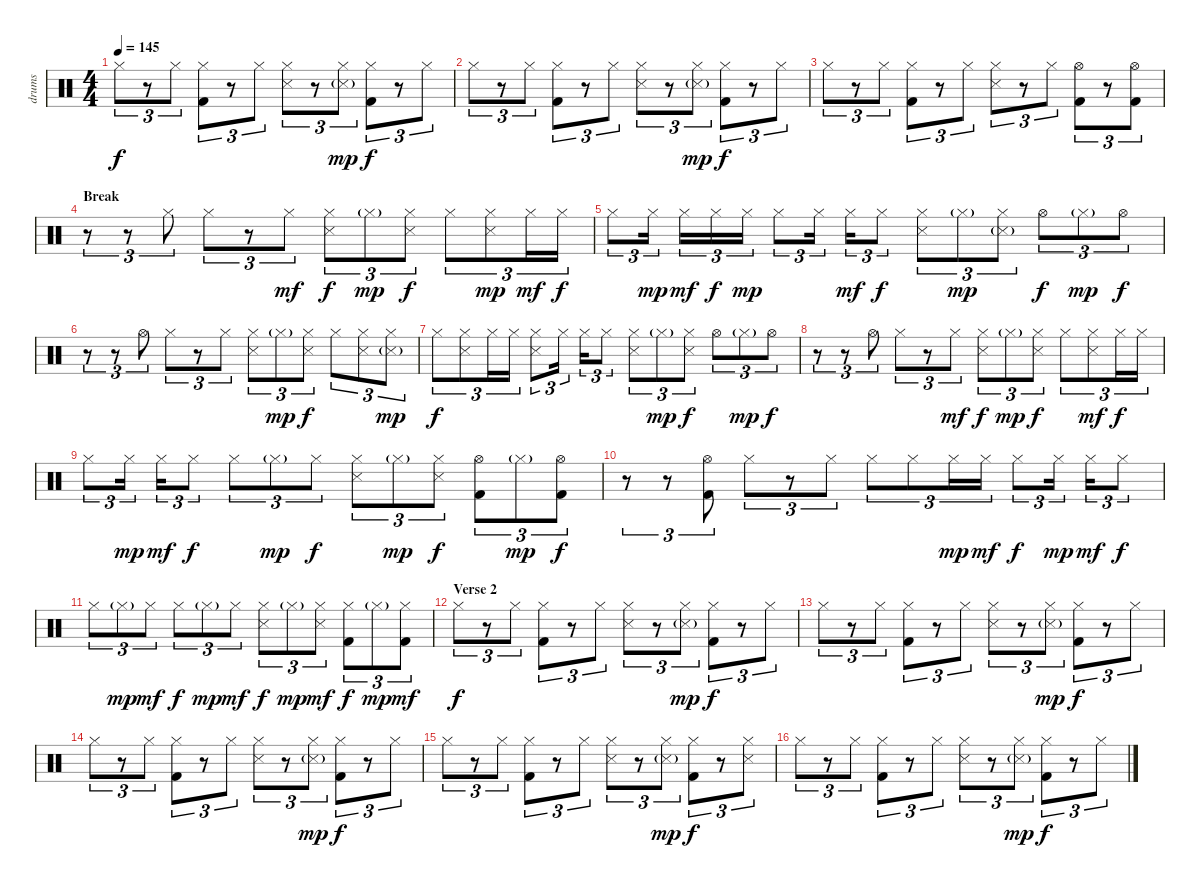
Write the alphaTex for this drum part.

\track ("drums" "drums") {instrument percussion}
\staff {score}
\articulation defaults
\ts (4 4)
\tempo 145
\clef neutral
\ks c "Hi-Hat (closed)".8{tu (3 2) dy f}
r.8{tu (3 2)} "Hi-Hat (closed)".8{tu (3 2)} ("Hi-Hat (closed)" "Kick (hit) 2").8{tu (3 2)} r.8{tu (3 2)} "Hi-Hat (closed)".8{tu (3 2)} ("Hi-Hat (closed)" "Snare (side stick) 3").8{tu (3 2)} r.8{tu (3 2)} ("Hi-Hat (closed)" "Snare (side stick) 3"{g}).8{tu (3 2) dy mp} ("Hi-Hat (closed)" "Kick (hit) 2").8{tu (3 2) dy f} r.8{tu (3 2)} "Hi-Hat (closed)".8{tu (3 2)} |
"Hi-Hat (closed)".8{tu (3 2)} r.8{tu (3 2)} "Hi-Hat (closed)".8{tu (3 2)} ("Hi-Hat (closed)" "Kick (hit) 2").8{tu (3 2)} r.8{tu (3 2)} "Hi-Hat (closed)".8{tu (3 2)} ("Hi-Hat (closed)" "Snare (side stick) 3").8{tu (3 2)} r.8{tu (3 2)} ("Hi-Hat (closed)" "Snare (side stick) 3"{g}).8{tu (3 2) dy mp} ("Hi-Hat (closed)" "Kick (hit) 2").8{tu (3 2) dy f} r.8{tu (3 2)} "Hi-Hat (closed)".8{tu (3 2)} |
"Hi-Hat (closed)".8{tu (3 2)} r.8{tu (3 2)} "Hi-Hat (closed)".8{tu (3 2)} ("Hi-Hat (closed)" "Kick (hit) 2").8{tu (3 2)} r.8{tu (3 2)} "Hi-Hat (closed)".8{tu (3 2)} ("Hi-Hat (closed)" "Snare (side stick) 3").8{tu (3 2)} r.8{tu (3 2)} "Hi-Hat (closed)".8{tu (3 2)} ("Hi-Hat (open)" "Kick (hit) 2").8{tu (3 2)} r.8{tu (3 2)} ("Hi-Hat (open)" "Kick (hit) 2").8{tu (3 2)} |
\section ("" "Break")
r.8{tu (3 2)} r.8{tu (3 2)} "Hi-Hat (closed)".8{tu (3 2)} "Hi-Hat (closed)".8{tu (3 2)} r.8{tu (3 2)} "Hi-Hat (closed)".8{tu (3 2) dy mf} ("Hi-Hat (closed)" "Snare (side stick) 3").8{tu (3 2) dy f} "Hi-Hat (closed)"{g}.8{tu (3 2) dy mp} ("Hi-Hat (closed)" "Snare (side stick) 3").8{tu (3 2) dy f} "Hi-Hat (closed)".8{tu (3 2)} ("Hi-Hat (closed)" "Snare (side stick) 3").8{tu (3 2) dy mp} "Hi-Hat (closed)".16{tu (3 2) dy mf} "Hi-Hat (closed)".16{tu (3 2) dy f} |
"Hi-Hat (closed)".8{tu (3 2)} "Hi-Hat (closed)".16{tu (3 2) dy mp} "Hi-Hat (closed)".16{tu (3 2) dy mf} "Hi-Hat (closed)".16{tu (3 2) dy f} "Hi-Hat (closed)".16{tu (3 2) dy mp} "Hi-Hat (closed)".8{tu (3 2)} "Hi-Hat (closed)".16{tu (3 2)} "Hi-Hat (closed)".16{tu (3 2) dy mf} "Hi-Hat (closed)".8{tu (3 2) dy f} ("Hi-Hat (closed)" "Snare (side stick) 3").8{tu (3 2)} "Hi-Hat (closed)"{g}.8{tu (3 2) dy mp} ("Hi-Hat (closed)" "Snare (side stick) 3"{g}).8{tu (3 2)} "Hi-Hat (open)".8{tu (3 2) dy f} "Hi-Hat (closed)"{g}.8{tu (3 2) dy mp} "Hi-Hat (open)".8{tu (3 2) dy f} |
r.8{tu (3 2)} r.8{tu (3 2)} "Hi-Hat (open)".8{tu (3 2)} "Hi-Hat (closed)".8{tu (3 2)} r.8{tu (3 2)} "Hi-Hat (closed)".8{tu (3 2)} ("Hi-Hat (closed)" "Snare (side stick) 3").8{tu (3 2)} "Hi-Hat (closed)"{g}.8{tu (3 2) dy mp} ("Hi-Hat (closed)" "Snare (side stick) 3").8{tu (3 2) dy f} "Hi-Hat (closed)".8{tu (3 2)} ("Hi-Hat (closed)" "Snare (side stick) 3").8{tu (3 2)} ("Hi-Hat (closed)" "Snare (side stick) 3"{g}).8{tu (3 2) dy mp} |
"Hi-Hat (closed)".8{tu (3 2) dy f} ("Hi-Hat (closed)" "Snare (side stick) 3").8{tu (3 2)} "Hi-Hat (closed)".16{tu (3 2)} "Hi-Hat (closed)".16{tu (3 2)} ("Hi-Hat (closed)" "Snare (side stick) 3").8{tu (3 2)} "Hi-Hat (closed)".16{tu (3 2)} "Hi-Hat (closed)".16{tu (3 2)} "Hi-Hat (closed)".8{tu (3 2)} ("Hi-Hat (closed)" "Snare (side stick) 3").8{tu (3 2)} "Hi-Hat (closed)"{g}.8{tu (3 2) dy mp} ("Hi-Hat (closed)" "Snare (side stick) 3").8{tu (3 2) dy f} "Hi-Hat (open)".8{tu (3 2)} "Hi-Hat (closed)"{g}.8{tu (3 2) dy mp} "Hi-Hat (open)".8{tu (3 2) dy f} |
r.8{tu (3 2)} r.8{tu (3 2)} "Hi-Hat (open)".8{tu (3 2)} "Hi-Hat (closed)".8{tu (3 2)} r.8{tu (3 2)} "Hi-Hat (closed)".8{tu (3 2) dy mf} ("Hi-Hat (closed)" "Snare (side stick) 3").8{tu (3 2) dy f} "Hi-Hat (closed)"{g}.8{tu (3 2) dy mp} ("Hi-Hat (closed)" "Snare (side stick) 3").8{tu (3 2) dy f} "Hi-Hat (closed)".8{tu (3 2)} ("Hi-Hat (closed)" "Snare (side stick) 3").8{tu (3 2) dy mf} "Hi-Hat (closed)".16{tu (3 2) dy f} "Hi-Hat (closed)".16{tu (3 2)} |
"Hi-Hat (closed)".8{tu (3 2)} "Hi-Hat (closed)".16{tu (3 2) dy mp} "Hi-Hat (closed)".16{tu (3 2) dy mf} "Hi-Hat (closed)".8{tu (3 2) dy f} "Hi-Hat (closed)".8{tu (3 2)} "Hi-Hat (closed)"{g}.8{tu (3 2) dy mp} "Hi-Hat (closed)".8{tu (3 2) dy f} ("Hi-Hat (closed)" "Snare (side stick) 3").8{tu (3 2)} "Hi-Hat (closed)"{g}.8{tu (3 2) dy mp} ("Hi-Hat (closed)" "Snare (side stick) 3").8{tu (3 2) dy f} ("Hi-Hat (open)" "Kick (hit) 2").8{tu (3 2)} "Hi-Hat (closed)"{g}.8{tu (3 2) dy mp} ("Hi-Hat (open)" "Kick (hit) 2").8{tu (3 2) dy f} |
r.8{tu (3 2)} r.8{tu (3 2)} ("Hi-Hat (open)" "Kick (hit) 2").8{tu (3 2)} "Hi-Hat (closed)".8{tu (3 2)} r.8{tu (3 2)} "Hi-Hat (closed)".8{tu (3 2)} "Hi-Hat (closed)".8{tu (3 2)} "Hi-Hat (closed)".8{tu (3 2)} "Hi-Hat (closed)".16{tu (3 2) dy mp} "Hi-Hat (closed)".16{tu (3 2) dy mf} "Hi-Hat (closed)".8{tu (3 2) dy f} "Hi-Hat (closed)".16{tu (3 2) dy mp} "Hi-Hat (closed)".16{tu (3 2) dy mf} "Hi-Hat (closed)".8{tu (3 2) dy f} |
"Hi-Hat (closed)".8{tu (3 2)} "Hi-Hat (closed)"{g}.8{tu (3 2) dy mp} "Hi-Hat (closed)".8{tu (3 2) dy mf} "Hi-Hat (closed)".8{tu (3 2) dy f} "Hi-Hat (closed)"{g}.8{tu (3 2) dy mp} "Hi-Hat (closed)".8{tu (3 2) dy mf} ("Hi-Hat (closed)" "Snare (side stick) 3").8{tu (3 2) dy f} "Hi-Hat (closed)"{g}.8{tu (3 2) dy mp} ("Hi-Hat (closed)" "Snare (side stick) 3").8{tu (3 2) dy mf} ("Hi-Hat (closed)" "Kick (hit) 2").8{tu (3 2) dy f} "Hi-Hat (closed)"{g}.8{tu (3 2) dy mp} ("Hi-Hat (closed)" "Kick (hit) 2").8{tu (3 2) dy mf} |
\section ("" "Verse 2")
"Hi-Hat (closed)".8{tu (3 2) dy f} r.8{tu (3 2)} "Hi-Hat (closed)".8{tu (3 2)} ("Hi-Hat (closed)" "Kick (hit) 2").8{tu (3 2)} r.8{tu (3 2)} "Hi-Hat (closed)".8{tu (3 2)} ("Hi-Hat (closed)" "Snare (side stick) 3").8{tu (3 2)} r.8{tu (3 2)} ("Hi-Hat (closed)" "Snare (side stick) 3"{g}).8{tu (3 2) dy mp} ("Hi-Hat (closed)" "Kick (hit) 2").8{tu (3 2) dy f} r.8{tu (3 2)} "Hi-Hat (closed)".8{tu (3 2)} |
"Hi-Hat (closed)".8{tu (3 2)} r.8{tu (3 2)} "Hi-Hat (closed)".8{tu (3 2)} ("Hi-Hat (closed)" "Kick (hit) 2").8{tu (3 2)} r.8{tu (3 2)} "Hi-Hat (closed)".8{tu (3 2)} ("Hi-Hat (closed)" "Snare (side stick) 3").8{tu (3 2)} r.8{tu (3 2)} ("Hi-Hat (closed)" "Snare (side stick) 3"{g}).8{tu (3 2) dy mp} ("Hi-Hat (closed)" "Kick (hit) 2").8{tu (3 2) dy f} r.8{tu (3 2)} "Hi-Hat (closed)".8{tu (3 2)} |
"Hi-Hat (closed)".8{tu (3 2)} r.8{tu (3 2)} "Hi-Hat (closed)".8{tu (3 2)} ("Hi-Hat (closed)" "Kick (hit) 2").8{tu (3 2)} r.8{tu (3 2)} "Hi-Hat (closed)".8{tu (3 2)} ("Hi-Hat (closed)" "Snare (side stick) 3").8{tu (3 2)} r.8{tu (3 2)} ("Hi-Hat (closed)" "Snare (side stick) 3"{g}).8{tu (3 2) dy mp} ("Hi-Hat (closed)" "Kick (hit) 2").8{tu (3 2) dy f} r.8{tu (3 2)} "Hi-Hat (closed)".8{tu (3 2)} |
"Hi-Hat (closed)".8{tu (3 2)} r.8{tu (3 2)} "Hi-Hat (closed)".8{tu (3 2)} ("Hi-Hat (closed)" "Kick (hit) 2").8{tu (3 2)} r.8{tu (3 2)} "Hi-Hat (closed)".8{tu (3 2)} ("Hi-Hat (closed)" "Snare (side stick) 3").8{tu (3 2)} r.8{tu (3 2)} ("Hi-Hat (closed)" "Snare (side stick) 3"{g}).8{tu (3 2) dy mp} ("Hi-Hat (closed)" "Kick (hit) 2").8{tu (3 2) dy f} r.8{tu (3 2)} ("Hi-Hat (closed)" "Snare (side stick) 3").8{tu (3 2)} |
"Hi-Hat (closed)".8{tu (3 2)} r.8{tu (3 2)} "Hi-Hat (closed)".8{tu (3 2)} ("Hi-Hat (closed)" "Kick (hit) 2").8{tu (3 2)} r.8{tu (3 2)} "Hi-Hat (closed)".8{tu (3 2)} ("Hi-Hat (closed)" "Snare (side stick) 3").8{tu (3 2)} r.8{tu (3 2)} ("Hi-Hat (closed)" "Snare (side stick) 3"{g}).8{tu (3 2) dy mp} ("Hi-Hat (closed)" "Kick (hit) 2").8{tu (3 2) dy f} r.8{tu (3 2)} "Hi-Hat (closed)".8{tu (3 2)}
